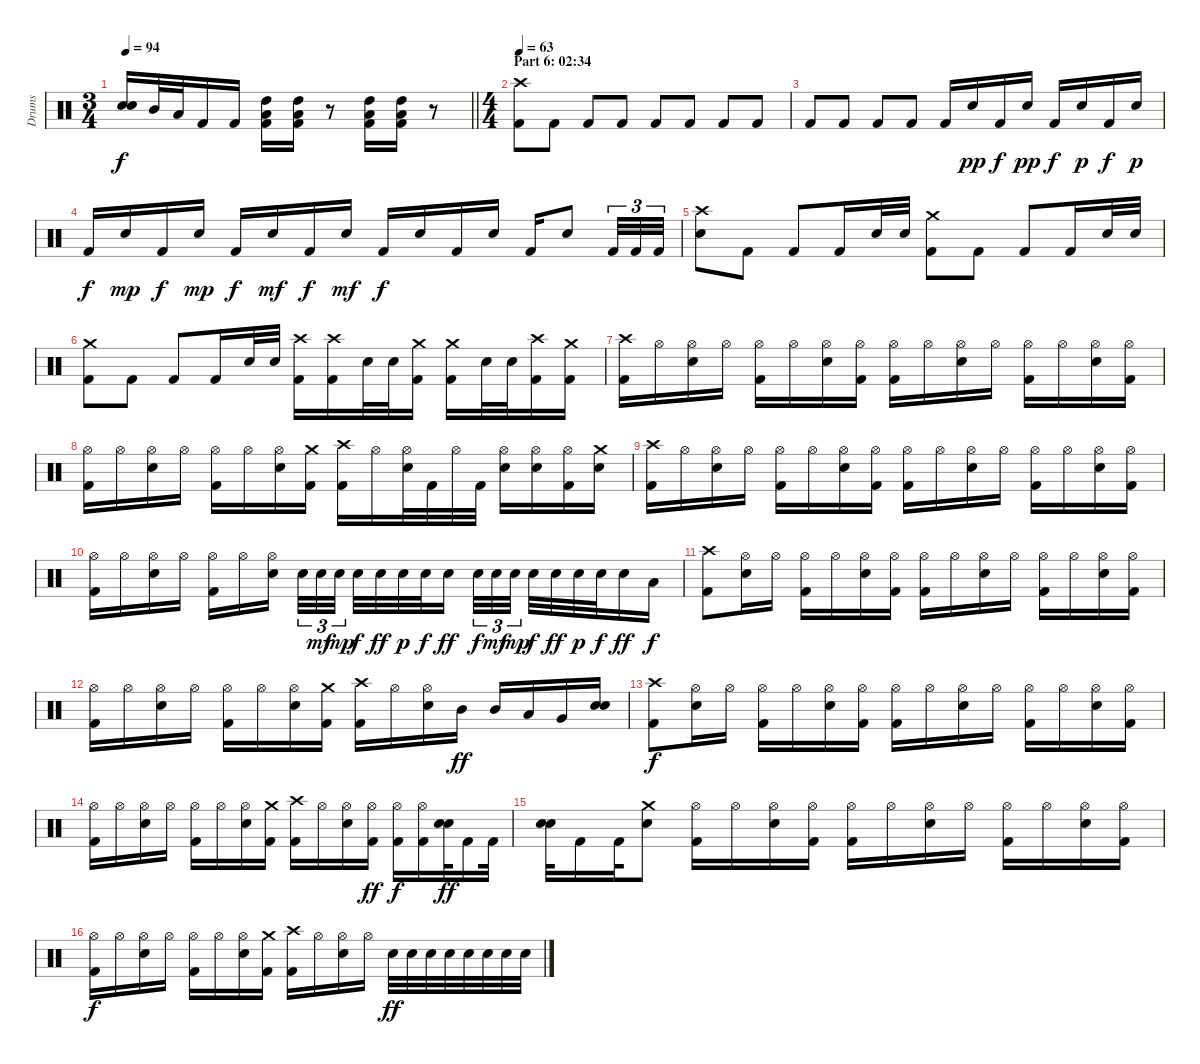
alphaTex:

\track ("Drums" "Drums") {instrument percussion}
\staff {score}
\articulation defaults
\ts (3 4)
\tempo 94
\clef neutral
\barLineRight lightlight
\ks c
("Electric Snare (hit)" "Electric Snare (hit)").16{bd 60 dy f} "Mid Tom (hit)".32 "Low Tom (hit)".32 "Kick (hit) 2".16 "Kick (hit) 2".16 ("High Tom (hit)" "Low Tom (hit)" "Kick (hit) 2").16 ("High Tom (hit)" "Low Tom (hit)" "Kick (hit) 2").16 r.8 ("High Tom (hit)" "Low Tom (hit)" "Kick (hit) 2").16 ("High Tom (hit)" "Low Tom (hit)" "Kick (hit) 2").16 r.8 |
\ts (4 4)
\section ("" "Part 6: 02:34")
\tempo 63
("Crash high (hit)" "Kick (hit) 2").8 "Kick (hit) 2".8 "Kick (hit) 2".8 "Kick (hit) 2".8 "Kick (hit) 2".8 "Kick (hit) 2".8 "Kick (hit) 2".8 "Kick (hit) 2".8 |
"Kick (hit) 2".8 "Kick (hit) 2".8 "Kick (hit) 2".8 "Kick (hit) 2".8 "Kick (hit) 2".16 "Electric Snare (hit)".16{dy pp} "Kick (hit) 2".16{dy f} "Electric Snare (hit)".16{dy pp} "Kick (hit) 2".16{dy f} "Electric Snare (hit)".16{dy p} "Kick (hit) 2".16{dy f} "Electric Snare (hit)".16{dy p} |
"Kick (hit) 2".16{dy f} "Electric Snare (hit)".16{dy mp} "Kick (hit) 2".16{dy f} "Electric Snare (hit)".16{dy mp} "Kick (hit) 2".16{dy f} "Electric Snare (hit)".16{dy mf} "Kick (hit) 2".16{dy f} "Electric Snare (hit)".16{dy mf} "Kick (hit) 2".16{dy f} "Electric Snare (hit)".16 "Kick (hit) 2".16 "Electric Snare (hit)".16 "Kick (hit) 2".16 "Electric Snare (hit)".8 "Kick (hit) 2".32{tu (3 2)} "Kick (hit) 2".32{tu (3 2)} "Kick (hit) 2".32{tu (3 2)} |
("Crash high (hit)" "Electric Snare (hit)").8 "Kick (hit) 2".8 "Kick (hit) 2".8 "Kick (hit) 2".16 "Electric Snare (hit)".32 "Electric Snare (hit)".32 ("Crash medium (hit)" "Kick (hit) 2").8 "Kick (hit) 2".8 "Kick (hit) 2".8 "Kick (hit) 2".16 "Electric Snare (hit)".32 "Electric Snare (hit)".32 |
("Crash medium (hit)" "Kick (hit) 2").8 "Kick (hit) 2".8 "Kick (hit) 2".8 "Kick (hit) 2".16 "Electric Snare (hit)".32 "Electric Snare (hit)".32 ("Crash high (hit)" "Kick (hit) 2").16 ("Crash high (hit)" "Kick (hit) 2").16 "Electric Snare (hit)".32 "Electric Snare (hit)".32 ("Crash medium (hit)" "Kick (hit) 2").16 ("Crash medium (hit)" "Kick (hit) 2").16 "Electric Snare (hit)".32 "Electric Snare (hit)".32 ("Crash high (hit)" "Kick (hit) 2").16 ("Crash medium (hit)" "Kick (hit) 2").16 |
("Crash high (hit)" "Kick (hit) 2").16 "Hi-Hat (open)".16 ("Hi-Hat (open)" "Electric Snare (hit)").16 "Hi-Hat (open)".16 ("Hi-Hat (open)" "Kick (hit) 2").16 "Hi-Hat (open)".16 ("Hi-Hat (open)" "Electric Snare (hit)").16 ("Hi-Hat (open)" "Kick (hit) 2").16 ("Hi-Hat (open)" "Kick (hit) 2").16 "Hi-Hat (open)".16 ("Hi-Hat (open)" "Electric Snare (hit)").16 "Hi-Hat (open)".16 ("Hi-Hat (open)" "Kick (hit) 2").16 "Hi-Hat (open)".16 ("Hi-Hat (open)" "Electric Snare (hit)").16 ("Hi-Hat (open)" "Kick (hit) 2").16 |
("Hi-Hat (open)" "Kick (hit) 2").16 "Hi-Hat (open)".16 ("Hi-Hat (open)" "Electric Snare (hit)").16 "Hi-Hat (open)".16 ("Hi-Hat (open)" "Kick (hit) 2").16 "Hi-Hat (open)".16 ("Hi-Hat (open)" "Electric Snare (hit)").16 ("Crash medium (hit)" "Kick (hit) 2").16 ("Crash high (hit)" "Kick (hit) 2").16 "Hi-Hat (open)".16 ("Hi-Hat (open)" "Electric Snare (hit)").32 "Kick (hit) 2".32 "Hi-Hat (open)".32 "Kick (hit) 2".32 ("Hi-Hat (open)" "Electric Snare (hit)").16 ("Hi-Hat (open)" "Electric Snare (hit)").16 ("Hi-Hat (open)" "Kick (hit) 2").16 ("Crash medium (hit)" "Electric Snare (hit)").16 |
("Crash high (hit)" "Kick (hit) 2").16 "Hi-Hat (open)".16 ("Hi-Hat (open)" "Electric Snare (hit)").16 "Hi-Hat (open)".16 ("Hi-Hat (open)" "Kick (hit) 2").16 "Hi-Hat (open)".16 ("Hi-Hat (open)" "Electric Snare (hit)").16 ("Hi-Hat (open)" "Kick (hit) 2").16 ("Hi-Hat (open)" "Kick (hit) 2").16 "Hi-Hat (open)".16 ("Hi-Hat (open)" "Electric Snare (hit)").16 "Hi-Hat (open)".16 ("Hi-Hat (open)" "Kick (hit) 2").16 "Hi-Hat (open)".16 ("Hi-Hat (open)" "Electric Snare (hit)").16 ("Hi-Hat (open)" "Kick (hit) 2").16 |
("Hi-Hat (open)" "Kick (hit) 2").16 "Hi-Hat (open)".16 ("Hi-Hat (open)" "Electric Snare (hit)").16 "Hi-Hat (open)".16 ("Hi-Hat (open)" "Kick (hit) 2").16 "Hi-Hat (open)".16 ("Hi-Hat (open)" "Electric Snare (hit)").16{beam splitsecondary} "Electric Snare (hit)".32{tu (3 2)} "Electric Snare (hit)".32{tu (3 2) dy mf} "Electric Snare (hit)".32{tu (3 2) dy mp} "Electric Snare (hit)".32{dy f} "Electric Snare (hit)".32{dy ff} "Electric Snare (hit)".32{dy p} "Electric Snare (hit)".32{dy f} "Electric Snare (hit)".16{dy ff beam splitsecondary} "Electric Snare (hit)".32{tu (3 2) dy f} "Electric Snare (hit)".32{tu (3 2) dy mf} "Electric Snare (hit)".32{tu (3 2) dy mp} "Electric Snare (hit)".32{dy f} "Electric Snare (hit)".32{dy ff} "Electric Snare (hit)".32{dy p} "Electric Snare (hit)".32{dy f} "Electric Snare (hit)".16{dy ff} "Low Tom (hit)".16{dy f} |
("Crash high (hit)" "Kick (hit) 2").8 ("Hi-Hat (open)" "Electric Snare (hit)").16 "Hi-Hat (open)".16 ("Hi-Hat (open)" "Kick (hit) 2").16 "Hi-Hat (open)".16 ("Hi-Hat (open)" "Electric Snare (hit)").16 ("Hi-Hat (open)" "Kick (hit) 2").16 ("Hi-Hat (open)" "Kick (hit) 2").16 "Hi-Hat (open)".16 ("Hi-Hat (open)" "Electric Snare (hit)").16 "Hi-Hat (open)".16 ("Hi-Hat (open)" "Kick (hit) 2").16 "Hi-Hat (open)".16 ("Hi-Hat (open)" "Electric Snare (hit)").16 ("Hi-Hat (open)" "Kick (hit) 2").16 |
("Hi-Hat (open)" "Kick (hit) 2").16 "Hi-Hat (open)".16 ("Hi-Hat (open)" "Electric Snare (hit)").16 "Hi-Hat (open)".16 ("Hi-Hat (open)" "Kick (hit) 2").16 "Hi-Hat (open)".16 ("Hi-Hat (open)" "Electric Snare (hit)").16 ("Crash medium (hit)" "Kick (hit) 2").16 ("Crash high (hit)" "Kick (hit) 2").16 "Hi-Hat (open)".16 ("Hi-Hat (open)" "Electric Snare (hit)").16 "Mid Tom (hit)".16{dy ff} "Mid Tom (hit)".16 "Low Tom (hit)".16 "Very Low Tom (hit)".16 ("Electric Snare (hit)" "Electric Snare (hit)").16{bd 120} |
("Crash high (hit)" "Kick (hit) 2").8{dy f} ("Hi-Hat (open)" "Electric Snare (hit)").16 "Hi-Hat (open)".16 ("Hi-Hat (open)" "Kick (hit) 2").16 "Hi-Hat (open)".16 ("Hi-Hat (open)" "Electric Snare (hit)").16 ("Hi-Hat (open)" "Kick (hit) 2").16 ("Hi-Hat (open)" "Kick (hit) 2").16 "Hi-Hat (open)".16 ("Hi-Hat (open)" "Electric Snare (hit)").16 "Hi-Hat (open)".16 ("Hi-Hat (open)" "Kick (hit) 2").16 "Hi-Hat (open)".16 ("Hi-Hat (open)" "Electric Snare (hit)").16 ("Hi-Hat (open)" "Kick (hit) 2").16 |
("Hi-Hat (open)" "Kick (hit) 2").16 "Hi-Hat (open)".16 ("Hi-Hat (open)" "Electric Snare (hit)").16 "Hi-Hat (open)".16 ("Hi-Hat (open)" "Kick (hit) 2").16 "Hi-Hat (open)".16 ("Hi-Hat (open)" "Electric Snare (hit)").16 ("Crash medium (hit)" "Kick (hit) 2").16 ("Crash high (hit)" "Kick (hit) 2").16 "Hi-Hat (open)".16 ("Hi-Hat (open)" "Electric Snare (hit)").16 ("Hi-Hat (open)" "Kick (hit) 2").16{dy ff} ("Hi-Hat (open)" "Kick (hit) 2").16{dy f} ("Hi-Hat (open)" "Kick (hit) 2").16 ("Electric Snare (hit)" "Electric Snare (hit)").32{bu 120 dy ff} "Kick (hit) 2".16 "Kick (hit) 2".32 |
("Electric Snare (hit)" "Electric Snare (hit)").32{bu 120} "Kick (hit) 2".16 "Kick (hit) 2".32 ("Crash medium (hit)" "Electric Snare (hit)").8 ("Hi-Hat (open)" "Kick (hit) 2").16 "Hi-Hat (open)".16 ("Hi-Hat (open)" "Electric Snare (hit)").16 ("Hi-Hat (open)" "Kick (hit) 2").16 ("Hi-Hat (open)" "Kick (hit) 2").16 "Hi-Hat (open)".16 ("Hi-Hat (open)" "Electric Snare (hit)").16 "Hi-Hat (open)".16 ("Hi-Hat (open)" "Kick (hit) 2").16 "Hi-Hat (open)".16 ("Hi-Hat (open)" "Electric Snare (hit)").16 ("Hi-Hat (open)" "Kick (hit) 2").16 |
("Hi-Hat (open)" "Kick (hit) 2").16{dy f} "Hi-Hat (open)".16 ("Hi-Hat (open)" "Electric Snare (hit)").16 "Hi-Hat (open)".16 ("Hi-Hat (open)" "Kick (hit) 2").16 "Hi-Hat (open)".16 ("Hi-Hat (open)" "Electric Snare (hit)").16 ("Crash medium (hit)" "Kick (hit) 2").16 ("Crash high (hit)" "Kick (hit) 2").16 "Hi-Hat (open)".16 ("Hi-Hat (open)" "Electric Snare (hit)").16 "Hi-Hat (open)".16 "Electric Snare (hit)".32{dy ff} "Electric Snare (hit)".32 "Electric Snare (hit)".32 "Electric Snare (hit)".32 "Electric Snare (hit)".32 "Electric Snare (hit)".32 "Electric Snare (hit)".32 "Electric Snare (hit)".32
